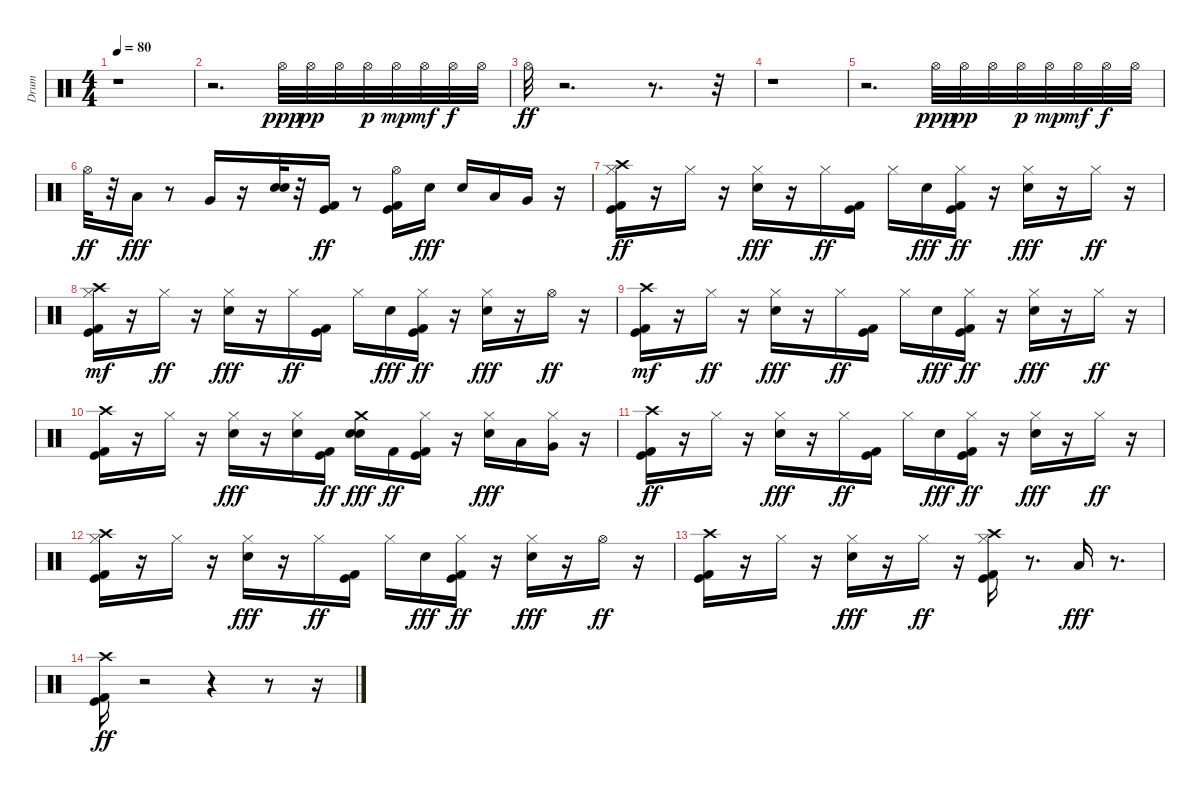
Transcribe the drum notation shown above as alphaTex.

\track ("Drum" "Drum") {instrument percussion}
\staff {score}
\articulation defaults
\ts (4 4)
\tempo 80
\clef neutral
\ks c
r.1{dy ff} |
r.2{d} "Hi-Hat (open)".32{dy ppp} "Hi-Hat (open)".32{dy pp} "Hi-Hat (open)".32 "Hi-Hat (open)".32{dy p} "Hi-Hat (open)".32{dy mp} "Hi-Hat (open)".32{dy mf} "Hi-Hat (open)".32{dy f} "Hi-Hat (open)".32 |
"Hi-Hat (open)".32{dy ff} r.2{d} r.8{d} r.32 |
r.1 |
r.2{d} "Hi-Hat (open)".32{dy ppp} "Hi-Hat (open)".32{dy pp} "Hi-Hat (open)".32 "Hi-Hat (open)".32{dy p} "Hi-Hat (open)".32{dy mp} "Hi-Hat (open)".32{dy mf} "Hi-Hat (open)".32{dy f} "Hi-Hat (open)".32 |
"Hi-Hat (open)".32{dy ff} r.32 "Low Tom (hit)".16{dy fff} r.8 "Very Low Tom (hit)".16 r.16 ("Electric Snare (hit)" "Electric Snare (hit)").32 r.32 ("Kick (hit)" "Kick (hit) 2").16{dy ff} r.8 ("Kick (hit)" "Kick (hit) 2" "Hi-Hat (open)").16 "Electric Snare (hit)".16{dy fff} "Electric Snare (hit)".16 "Low Tom (hit)".16 "Very Low Tom (hit)".16 r.16 |
("Crash high (hit)" "Hi-Hat (closed)" "Kick (hit)" "Kick (hit) 2").16{dy ff} r.16 "Hi-Hat (closed)".16 r.16 ("Hi-Hat (closed)" "Electric Snare (hit)").16{dy fff} r.16 "Hi-Hat (closed)".16{dy ff} ("Kick (hit)" "Kick (hit) 2").16 "Hi-Hat (closed)".16 "Electric Snare (hit)".16{dy fff} ("Hi-Hat (closed)" "Kick (hit)" "Kick (hit) 2").16{dy ff} r.16 ("Hi-Hat (closed)" "Electric Snare (hit)").16{dy fff} r.16 "Hi-Hat (closed)".16{dy ff} r.16 |
("Hi-Hat (closed)" "Kick (hit) 2" "Kick (hit)" "Crash high (hit)").16{dy mf} r.16 "Hi-Hat (closed)".16{dy ff} r.16 ("Hi-Hat (closed)" "Electric Snare (hit)").16{dy fff} r.16 "Hi-Hat (closed)".16{dy ff} ("Kick (hit) 2" "Kick (hit)").16 "Hi-Hat (closed)".16 "Electric Snare (hit)".16{dy fff} ("Hi-Hat (closed)" "Kick (hit) 2" "Kick (hit)").16{dy ff} r.16 ("Hi-Hat (closed)" "Electric Snare (hit)").16{dy fff} r.16 "Hi-Hat (open)".16{dy ff} r.16 |
("Kick (hit)" "Kick (hit) 2" "Crash high (hit)").16{dy mf} r.16 "Hi-Hat (closed)".16{dy ff} r.16 ("Hi-Hat (closed)" "Electric Snare (hit)").16{dy fff} r.16 "Hi-Hat (closed)".16{dy ff} ("Kick (hit)" "Kick (hit) 2").16 "Hi-Hat (closed)".16 "Electric Snare (hit)".16{dy fff} ("Hi-Hat (closed)" "Kick (hit)" "Kick (hit) 2").16{dy ff} r.16 ("Hi-Hat (closed)" "Electric Snare (hit)").16{dy fff} r.16 "Hi-Hat (closed)".16{dy ff} r.16 |
("Kick (hit) 2" "Kick (hit)" "Crash high (hit)").16 r.16 "Hi-Hat (closed)".16 r.16 ("Hi-Hat (closed)" "Electric Snare (hit)").16{dy fff} r.16 ("Hi-Hat (closed)" "Electric Snare (hit)").16 ("Kick (hit) 2" "Kick (hit)").16{dy ff} ("Crash medium (hit)" "Electric Snare (hit)" "Electric Snare (hit)").16{dy fff} "Kick (hit) 2".16{dy ff} ("Hi-Hat (closed)" "Kick (hit) 2" "Kick (hit)").16 r.16 ("Hi-Hat (closed)" "Electric Snare (hit)").16{dy fff} "Low Tom (hit)".16 ("Hi-Hat (closed)" "Very Low Tom (hit)").16 r.16 |
("Crash high (hit)" "Kick (hit)" "Kick (hit) 2").16{dy ff} r.16 "Hi-Hat (closed)".16 r.16 ("Hi-Hat (closed)" "Electric Snare (hit)").16{dy fff} r.16 "Hi-Hat (closed)".16{dy ff} ("Kick (hit)" "Kick (hit) 2").16 "Hi-Hat (closed)".16 "Electric Snare (hit)".16{dy fff} ("Hi-Hat (closed)" "Kick (hit)" "Kick (hit) 2").16{dy ff} r.16 ("Hi-Hat (closed)" "Electric Snare (hit)").16{dy fff} r.16 "Hi-Hat (closed)".16{dy ff} r.16 |
("Hi-Hat (closed)" "Kick (hit) 2" "Kick (hit)" "Crash high (hit)").16 r.16 "Hi-Hat (closed)".16 r.16 ("Hi-Hat (closed)" "Electric Snare (hit)").16{dy fff} r.16 "Hi-Hat (closed)".16{dy ff} ("Kick (hit) 2" "Kick (hit)").16 "Hi-Hat (closed)".16 "Electric Snare (hit)".16{dy fff} ("Hi-Hat (closed)" "Kick (hit) 2" "Kick (hit)").16{dy ff} r.16 ("Hi-Hat (closed)" "Electric Snare (hit)").16{dy fff} r.16 "Hi-Hat (open)".16{dy ff} r.16 |
("Crash high (hit)" "Kick (hit)" "Kick (hit) 2").16 r.16 "Hi-Hat (closed)".16 r.16 ("Hi-Hat (closed)" "Electric Snare (hit)").16{dy fff} r.16 "Hi-Hat (closed)".16{dy ff} r.16 ("Hi-Hat (closed)" "Crash high (hit)" "Kick (hit)" "Kick (hit) 2").16 r.8{d} "Low Tom (hit)".16{dy fff} r.8{d} |
("Crash high (hit)" "Kick (hit) 2" "Kick (hit)").16{dy ff} r.2 r.4 r.8 r.16
